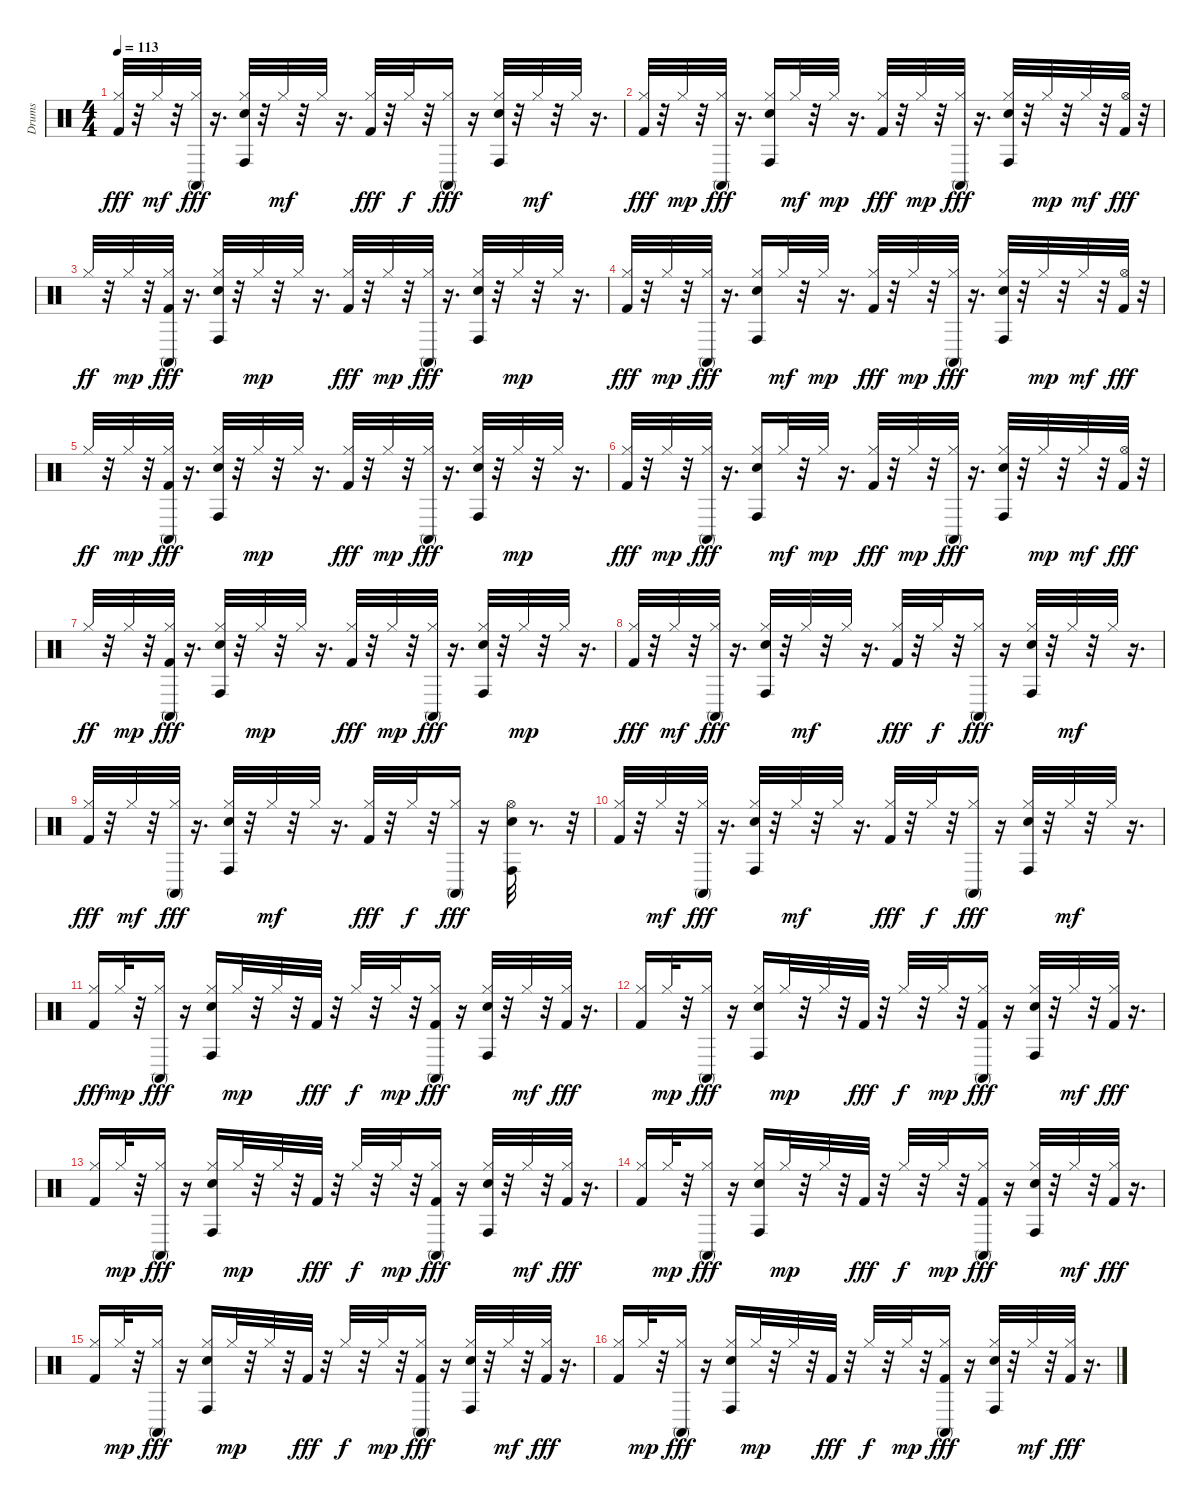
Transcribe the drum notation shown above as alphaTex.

\track ("Drums   " "Drums   ") {instrument percussion}
\staff {score}
\articulation defaults
\ts (4 4)
\tempo 113
\clef neutral
\ks c
("Hi-Hat (closed)" "Kick (hit) 2").32{dy fff} r.32 "Hi-Hat (closed)".32{dy mf} r.32 ("Hi-Hat (closed)" "Conga high (mute)").32{dy fff} r.16{d} ("Hi-Hat (closed)" "Electric Snare (hit)" "Conga high (hit)").32 r.32 "Hi-Hat (closed)".32{dy mf} r.32 "Hi-Hat (closed)".32 r.16{d} ("Hi-Hat (closed)" "Kick (hit) 2").32{dy fff} r.32 "Hi-Hat (closed)".32{dy f} r.32 ("Hi-Hat (closed)" "Conga high (mute)").16{dy fff} r.16 ("Hi-Hat (closed)" "Electric Snare (hit)" "Conga high (hit)").32 r.32 "Hi-Hat (closed)".32{dy mf} r.32 "Hi-Hat (closed)".32 r.16{d} |
("Hi-Hat (closed)" "Kick (hit) 2").32{dy fff} r.32 "Hi-Hat (closed)".32{dy mp} r.32 ("Hi-Hat (closed)" "Conga high (mute)").32{dy fff} r.16{d} ("Hi-Hat (closed)" "Electric Snare (hit)" "Conga high (hit)").16 "Hi-Hat (closed)".32{dy mf} r.32 "Hi-Hat (closed)".32{dy mp} r.16{d} ("Hi-Hat (closed)" "Kick (hit) 2").32{dy fff} r.32 "Hi-Hat (closed)".32{dy mp} r.32 ("Hi-Hat (closed)" "Conga high (mute)").32{dy fff} r.16{d} ("Hi-Hat (closed)" "Electric Snare (hit)" "Conga high (hit)").32 r.32 "Hi-Hat (closed)".32{dy mp} r.32 "Hi-Hat (closed)".32{dy mf} r.32 ("Kick (hit) 2" "Hi-Hat (open)").32{dy fff} r.32 |
"Hi-Hat (closed)".32{dy ff} r.32 "Hi-Hat (closed)".32{dy mp} r.32 ("Hi-Hat (closed)" "Kick (hit) 2" "Conga high (mute)").32{dy fff} r.16{d} ("Hi-Hat (closed)" "Electric Snare (hit)" "Conga high (hit)").32 r.32 "Hi-Hat (closed)".32{dy mp} r.32 "Hi-Hat (closed)".32 r.16{d} ("Hi-Hat (closed)" "Kick (hit) 2").32{dy fff} r.32 "Hi-Hat (closed)".32{dy mp} r.32 ("Hi-Hat (closed)" "Conga high (mute)").32{dy fff} r.16{d} ("Hi-Hat (closed)" "Electric Snare (hit)" "Conga high (hit)").32 r.32 "Hi-Hat (closed)".32{dy mp} r.32 "Hi-Hat (closed)".32 r.16{d} |
("Hi-Hat (closed)" "Kick (hit) 2").32{dy fff} r.32 "Hi-Hat (closed)".32{dy mp} r.32 ("Hi-Hat (closed)" "Conga high (mute)").32{dy fff} r.16{d} ("Hi-Hat (closed)" "Electric Snare (hit)" "Conga high (hit)").16 "Hi-Hat (closed)".32{dy mf} r.32 "Hi-Hat (closed)".32{dy mp} r.16{d} ("Hi-Hat (closed)" "Kick (hit) 2").32{dy fff} r.32 "Hi-Hat (closed)".32{dy mp} r.32 ("Hi-Hat (closed)" "Conga high (mute)").32{dy fff} r.16{d} ("Hi-Hat (closed)" "Electric Snare (hit)" "Conga high (hit)").32 r.32 "Hi-Hat (closed)".32{dy mp} r.32 "Hi-Hat (closed)".32{dy mf} r.32 ("Kick (hit) 2" "Hi-Hat (open)").32{dy fff} r.32 |
"Hi-Hat (closed)".32{dy ff} r.32 "Hi-Hat (closed)".32{dy mp} r.32 ("Hi-Hat (closed)" "Kick (hit) 2" "Conga high (mute)").32{dy fff} r.16{d} ("Hi-Hat (closed)" "Electric Snare (hit)" "Conga high (hit)").32 r.32 "Hi-Hat (closed)".32{dy mp} r.32 "Hi-Hat (closed)".32 r.16{d} ("Hi-Hat (closed)" "Kick (hit) 2").32{dy fff} r.32 "Hi-Hat (closed)".32{dy mp} r.32 ("Hi-Hat (closed)" "Conga high (mute)").32{dy fff} r.16{d} ("Hi-Hat (closed)" "Electric Snare (hit)" "Conga high (hit)").32 r.32 "Hi-Hat (closed)".32{dy mp} r.32 "Hi-Hat (closed)".32 r.16{d} |
("Hi-Hat (closed)" "Kick (hit) 2").32{dy fff} r.32 "Hi-Hat (closed)".32{dy mp} r.32 ("Hi-Hat (closed)" "Conga high (mute)").32{dy fff} r.16{d} ("Hi-Hat (closed)" "Electric Snare (hit)" "Conga high (hit)").16 "Hi-Hat (closed)".32{dy mf} r.32 "Hi-Hat (closed)".32{dy mp} r.16{d} ("Hi-Hat (closed)" "Kick (hit) 2").32{dy fff} r.32 "Hi-Hat (closed)".32{dy mp} r.32 ("Hi-Hat (closed)" "Conga high (mute)").32{dy fff} r.16{d} ("Hi-Hat (closed)" "Electric Snare (hit)" "Conga high (hit)").32 r.32 "Hi-Hat (closed)".32{dy mp} r.32 "Hi-Hat (closed)".32{dy mf} r.32 ("Kick (hit) 2" "Hi-Hat (open)").32{dy fff} r.32 |
"Hi-Hat (closed)".32{dy ff} r.32 "Hi-Hat (closed)".32{dy mp} r.32 ("Hi-Hat (closed)" "Kick (hit) 2" "Conga high (mute)").32{dy fff} r.16{d} ("Hi-Hat (closed)" "Electric Snare (hit)" "Conga high (hit)").32 r.32 "Hi-Hat (closed)".32{dy mp} r.32 "Hi-Hat (closed)".32 r.16{d} ("Hi-Hat (closed)" "Kick (hit) 2").32{dy fff} r.32 "Hi-Hat (closed)".32{dy mp} r.32 ("Hi-Hat (closed)" "Conga high (mute)").32{dy fff} r.16{d} ("Hi-Hat (closed)" "Electric Snare (hit)" "Conga high (hit)").32 r.32 "Hi-Hat (closed)".32{dy mp} r.32 "Hi-Hat (closed)".32 r.16{d} |
("Hi-Hat (closed)" "Kick (hit) 2").32{dy fff} r.32 "Hi-Hat (closed)".32{dy mf} r.32 ("Hi-Hat (closed)" "Conga high (mute)").32{dy fff} r.16{d} ("Hi-Hat (closed)" "Electric Snare (hit)" "Conga high (hit)").32 r.32 "Hi-Hat (closed)".32{dy mf} r.32 "Hi-Hat (closed)".32 r.16{d} ("Hi-Hat (closed)" "Kick (hit) 2").32{dy fff} r.32 "Hi-Hat (closed)".32{dy f} r.32 ("Hi-Hat (closed)" "Conga high (mute)").16{dy fff} r.16 ("Hi-Hat (closed)" "Electric Snare (hit)" "Conga high (hit)").32 r.32 "Hi-Hat (closed)".32{dy mf} r.32 "Hi-Hat (closed)".32 r.16{d} |
("Hi-Hat (closed)" "Kick (hit) 2").32{dy fff} r.32 "Hi-Hat (closed)".32{dy mf} r.32 ("Hi-Hat (closed)" "Conga high (mute)").32{dy fff} r.16{d} ("Hi-Hat (closed)" "Electric Snare (hit)" "Conga high (hit)").32 r.32 "Hi-Hat (closed)".32{dy mf} r.32 "Hi-Hat (closed)".32 r.16{d} ("Hi-Hat (closed)" "Kick (hit) 2").32{dy fff} r.32 "Hi-Hat (closed)".32{dy f} r.32 ("Hi-Hat (closed)" "Conga high (mute)").16{dy fff} r.16 ("Electric Snare (hit)" "Hi-Hat (open)" "Conga high (hit)").32 r.8{d} r.32 |
("Hi-Hat (closed)" "Kick (hit) 2").32 r.32 "Hi-Hat (closed)".32{dy mf} r.32 ("Hi-Hat (closed)" "Conga high (mute)").32{dy fff} r.16{d} ("Hi-Hat (closed)" "Electric Snare (hit)" "Conga high (hit)").32 r.32 "Hi-Hat (closed)".32{dy mf} r.32 "Hi-Hat (closed)".32 r.16{d} ("Hi-Hat (closed)" "Kick (hit) 2").32{dy fff} r.32 "Hi-Hat (closed)".32{dy f} r.32 ("Hi-Hat (closed)" "Conga high (mute)").16{dy fff} r.16 ("Hi-Hat (closed)" "Electric Snare (hit)" "Conga high (hit)").32 r.32 "Hi-Hat (closed)".32{dy mf} r.32 "Hi-Hat (closed)".32 r.16{d} |
("Hi-Hat (closed)" "Kick (hit) 2").16{dy fff} "Hi-Hat (closed)".32{dy mp} r.32 ("Hi-Hat (closed)" "Conga high (mute)").16{dy fff} r.16 ("Hi-Hat (closed)" "Electric Snare (hit)" "Conga high (hit)").16 "Hi-Hat (closed)".32{dy mp} r.32 "Hi-Hat (closed)".32 r.32 "Kick (hit) 2".32{dy fff} r.32 "Hi-Hat (closed)".32{dy f} r.32 "Hi-Hat (closed)".32{dy mp} r.32 ("Hi-Hat (closed)" "Kick (hit) 2" "Conga high (mute)").16{dy fff} r.16 ("Hi-Hat (closed)" "Electric Snare (hit)" "Conga high (hit)").32 r.32 "Hi-Hat (closed)".32{dy mf} r.32 ("Hi-Hat (closed)" "Kick (hit) 2").32{dy fff} r.16{d} |
("Hi-Hat (closed)" "Kick (hit) 2").16 "Hi-Hat (closed)".32{dy mp} r.32 ("Hi-Hat (closed)" "Conga high (mute)").16{dy fff} r.16 ("Hi-Hat (closed)" "Electric Snare (hit)" "Conga high (hit)").16 "Hi-Hat (closed)".32{dy mp} r.32 "Hi-Hat (closed)".32 r.32 "Kick (hit) 2".32{dy fff} r.32 "Hi-Hat (closed)".32{dy f} r.32 "Hi-Hat (closed)".32{dy mp} r.32 ("Hi-Hat (closed)" "Kick (hit) 2" "Conga high (mute)").16{dy fff} r.16 ("Hi-Hat (closed)" "Electric Snare (hit)" "Conga high (hit)").32 r.32 "Hi-Hat (closed)".32{dy mf} r.32 ("Hi-Hat (closed)" "Kick (hit) 2").32{dy fff} r.16{d} |
("Hi-Hat (closed)" "Kick (hit) 2").16 "Hi-Hat (closed)".32{dy mp} r.32 ("Hi-Hat (closed)" "Conga high (mute)").16{dy fff} r.16 ("Hi-Hat (closed)" "Electric Snare (hit)" "Conga high (hit)").16 "Hi-Hat (closed)".32{dy mp} r.32 "Hi-Hat (closed)".32 r.32 "Kick (hit) 2".32{dy fff} r.32 "Hi-Hat (closed)".32{dy f} r.32 "Hi-Hat (closed)".32{dy mp} r.32 ("Hi-Hat (closed)" "Kick (hit) 2" "Conga high (mute)").16{dy fff} r.16 ("Hi-Hat (closed)" "Electric Snare (hit)" "Conga high (hit)").32 r.32 "Hi-Hat (closed)".32{dy mf} r.32 ("Hi-Hat (closed)" "Kick (hit) 2").32{dy fff} r.16{d} |
("Hi-Hat (closed)" "Kick (hit) 2").16 "Hi-Hat (closed)".32{dy mp} r.32 ("Hi-Hat (closed)" "Conga high (mute)").16{dy fff} r.16 ("Hi-Hat (closed)" "Electric Snare (hit)" "Conga high (hit)").16 "Hi-Hat (closed)".32{dy mp} r.32 "Hi-Hat (closed)".32 r.32 "Kick (hit) 2".32{dy fff} r.32 "Hi-Hat (closed)".32{dy f} r.32 "Hi-Hat (closed)".32{dy mp} r.32 ("Hi-Hat (closed)" "Kick (hit) 2" "Conga high (mute)").16{dy fff} r.16 ("Hi-Hat (closed)" "Electric Snare (hit)" "Conga high (hit)").32 r.32 "Hi-Hat (closed)".32{dy mf} r.32 ("Hi-Hat (closed)" "Kick (hit) 2").32{dy fff} r.16{d} |
("Hi-Hat (closed)" "Kick (hit) 2").16 "Hi-Hat (closed)".32{dy mp} r.32 ("Hi-Hat (closed)" "Conga high (mute)").16{dy fff} r.16 ("Hi-Hat (closed)" "Electric Snare (hit)" "Conga high (hit)").16 "Hi-Hat (closed)".32{dy mp} r.32 "Hi-Hat (closed)".32 r.32 "Kick (hit) 2".32{dy fff} r.32 "Hi-Hat (closed)".32{dy f} r.32 "Hi-Hat (closed)".32{dy mp} r.32 ("Hi-Hat (closed)" "Kick (hit) 2" "Conga high (mute)").16{dy fff} r.16 ("Hi-Hat (closed)" "Electric Snare (hit)" "Conga high (hit)").32 r.32 "Hi-Hat (closed)".32{dy mf} r.32 ("Hi-Hat (closed)" "Kick (hit) 2").32{dy fff} r.16{d} |
("Hi-Hat (closed)" "Kick (hit) 2").16 "Hi-Hat (closed)".32{dy mp} r.32 ("Hi-Hat (closed)" "Conga high (mute)").16{dy fff} r.16 ("Hi-Hat (closed)" "Electric Snare (hit)" "Conga high (hit)").16 "Hi-Hat (closed)".32{dy mp} r.32 "Hi-Hat (closed)".32 r.32 "Kick (hit) 2".32{dy fff} r.32 "Hi-Hat (closed)".32{dy f} r.32 "Hi-Hat (closed)".32{dy mp} r.32 ("Hi-Hat (closed)" "Kick (hit) 2" "Conga high (mute)").16{dy fff} r.16 ("Hi-Hat (closed)" "Electric Snare (hit)" "Conga high (hit)").32 r.32 "Hi-Hat (closed)".32{dy mf} r.32 ("Hi-Hat (closed)" "Kick (hit) 2").32{dy fff} r.16{d}
